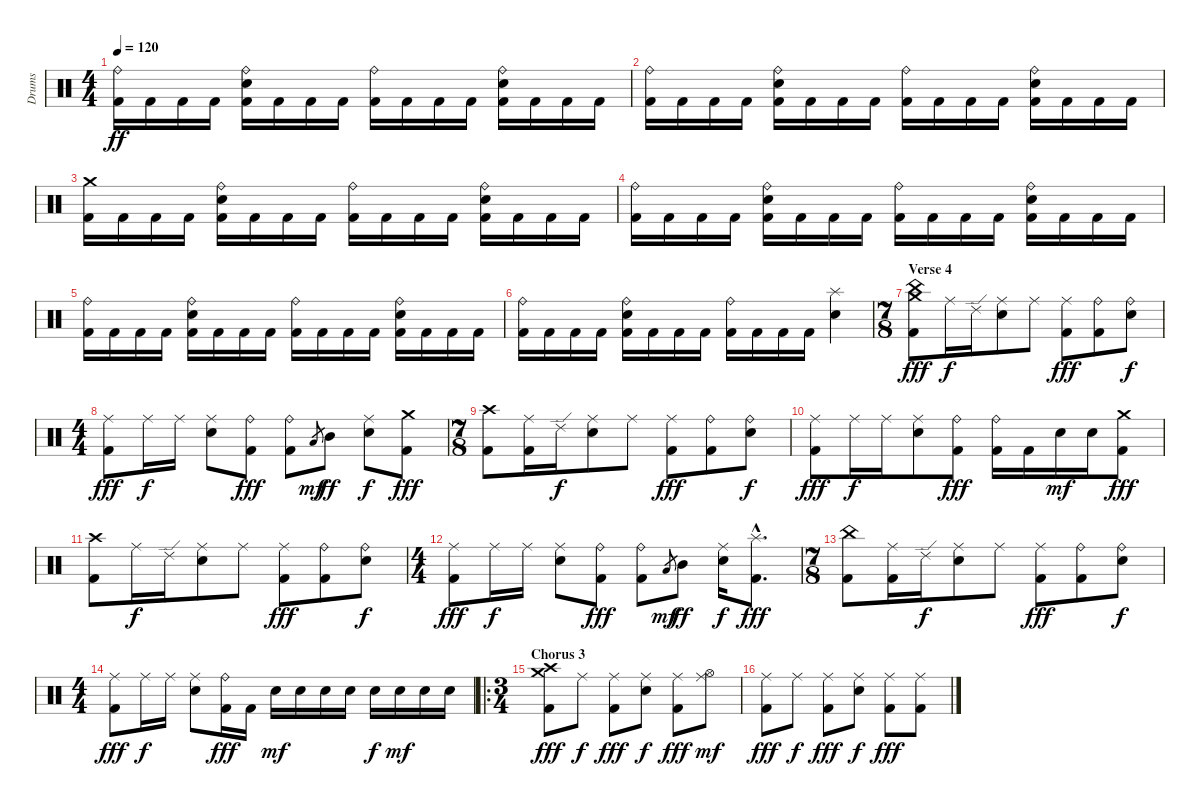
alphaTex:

\track ("Drums" "Drums") {instrument percussion}
\staff {score}
\articulation defaults
\ts (4 4)
\tempo 120
\clef neutral
\ks c
("Ride (bell)" "Kick (hit) 2").16{dy ff} "Kick (hit) 2".16 "Kick (hit) 2".16 "Kick (hit) 2".16 ("Ride (bell)" "Electric Snare (hit)" "Kick (hit) 2").16 "Kick (hit) 2".16 "Kick (hit) 2".16 "Kick (hit) 2".16 ("Ride (bell)" "Kick (hit) 2").16 "Kick (hit) 2".16 "Kick (hit) 2".16 "Kick (hit) 2".16 ("Ride (bell)" "Electric Snare (hit)" "Kick (hit) 2").16 "Kick (hit) 2".16 "Kick (hit) 2".16 "Kick (hit) 2".16 |
("Ride (bell)" "Kick (hit) 2").16 "Kick (hit) 2".16 "Kick (hit) 2".16 "Kick (hit) 2".16 ("Ride (bell)" "Electric Snare (hit)" "Kick (hit) 2").16 "Kick (hit) 2".16 "Kick (hit) 2".16 "Kick (hit) 2".16 ("Ride (bell)" "Kick (hit) 2").16 "Kick (hit) 2".16 "Kick (hit) 2".16 "Kick (hit) 2".16 ("Ride (bell)" "Electric Snare (hit)" "Kick (hit) 2").16 "Kick (hit) 2".16 "Kick (hit) 2".16 "Kick (hit) 2".16 |
("Crash medium (hit)" "Kick (hit) 2").16 "Kick (hit) 2".16 "Kick (hit) 2".16 "Kick (hit) 2".16 ("Ride (bell)" "Electric Snare (hit)" "Kick (hit) 2").16 "Kick (hit) 2".16 "Kick (hit) 2".16 "Kick (hit) 2".16 ("Ride (bell)" "Kick (hit) 2").16 "Kick (hit) 2".16 "Kick (hit) 2".16 "Kick (hit) 2".16 ("Ride (bell)" "Electric Snare (hit)" "Kick (hit) 2").16 "Kick (hit) 2".16 "Kick (hit) 2".16 "Kick (hit) 2".16 |
("Ride (bell)" "Kick (hit) 2").16 "Kick (hit) 2".16 "Kick (hit) 2".16 "Kick (hit) 2".16 ("Ride (bell)" "Electric Snare (hit)" "Kick (hit) 2").16 "Kick (hit) 2".16 "Kick (hit) 2".16 "Kick (hit) 2".16 ("Ride (bell)" "Kick (hit) 2").16 "Kick (hit) 2".16 "Kick (hit) 2".16 "Kick (hit) 2".16 ("Ride (bell)" "Electric Snare (hit)" "Kick (hit) 2").16 "Kick (hit) 2".16 "Kick (hit) 2".16 "Kick (hit) 2".16 |
("Ride (bell)" "Kick (hit) 2").16 "Kick (hit) 2".16 "Kick (hit) 2".16 "Kick (hit) 2".16 ("Ride (bell)" "Electric Snare (hit)" "Kick (hit) 2").16 "Kick (hit) 2".16 "Kick (hit) 2".16 "Kick (hit) 2".16 ("Ride (bell)" "Kick (hit) 2").16 "Kick (hit) 2".16 "Kick (hit) 2".16 "Kick (hit) 2".16 ("Ride (bell)" "Electric Snare (hit)" "Kick (hit) 2").16 "Kick (hit) 2".16 "Kick (hit) 2".16 "Kick (hit) 2".16 |
("Ride (bell)" "Kick (hit) 2").16 "Kick (hit) 2".16 "Kick (hit) 2".16 "Kick (hit) 2".16 ("Ride (bell)" "Electric Snare (hit)" "Kick (hit) 2").16 "Kick (hit) 2".16 "Kick (hit) 2".16 "Kick (hit) 2".16 ("Ride (bell)" "Kick (hit) 2").16 "Kick (hit) 2".16 "Kick (hit) 2".16 "Kick (hit) 2".16 ("Splash (hit)" "Electric Snare (hit)").4 |
\ts (7 8)
\section ("" "Verse 4")
("China (hit)" "Crash medium (hit)" "Kick (hit) 2").8{dy fff} "Ride (middle)".16{dy f} "Ride (edge) 2".16 ("Ride (middle)" "Electric Snare (hit)").8 "Ride (middle)".8 ("Ride (middle)" "Kick (hit) 2").8{dy fff} ("Ride (bell)" "Kick (hit) 2").8 ("Ride (bell)" "Electric Snare (hit)").8{dy f} |
\ts (4 4)
("Ride (middle)" "Kick (hit) 2").8{dy fff} "Ride (middle)".16{dy f} "Ride (middle)".16 ("Ride (middle)" "Electric Snare (hit)").8 ("Ride (bell)" "Kick (hit) 2").8{dy fff} ("Ride (bell)" "Kick (hit) 2").8 "Low Tom (hit)".8{gr dy mf} "Mid Tom (hit)".8{dy ff} ("Ride (middle)" "Electric Snare (hit)").8{dy f} ("Crash medium (hit)" "Kick (hit) 2").8{dy fff} |
\ts (7 8)
("Crash high (hit)" "Kick (hit) 2").8 ("Ride (middle)" "Kick (hit) 2").16 "Ride (edge) 2".16{dy f} ("Ride (middle)" "Electric Snare (hit)").8 "Ride (middle)".8 ("Ride (middle)" "Kick (hit) 2").8{dy fff} ("Ride (bell)" "Kick (hit) 2").8 ("Ride (bell)" "Electric Snare (hit)").8{dy f} |
("Ride (middle)" "Kick (hit) 2").8{dy fff} "Ride (middle)".16{dy f} "Ride (middle)".16 ("Ride (middle)" "Electric Snare (hit)").8 ("Ride (bell)" "Kick (hit) 2").8{dy fff} ("Ride (bell)" "Kick (hit) 2").16 "Kick (hit) 2".16 "Electric Snare (hit)".16{dy mf} "Electric Snare (hit)".16 ("Crash medium (hit)" "Kick (hit) 2").8{dy fff} |
("Crash high (hit)" "Kick (hit) 2").8 "Ride (middle)".16{dy f} "Ride (edge) 2".16 ("Ride (middle)" "Electric Snare (hit)").8 "Ride (middle)".8 ("Ride (middle)" "Kick (hit) 2").8{dy fff} ("Ride (bell)" "Kick (hit) 2").8 ("Ride (bell)" "Electric Snare (hit)").8{dy f} |
\ts (4 4)
("Ride (middle)" "Kick (hit) 2").8{dy fff} "Ride (middle)".16{dy f} "Ride (middle)".16 ("Ride (middle)" "Electric Snare (hit)").8 ("Ride (bell)" "Kick (hit) 2").8{dy fff} ("Ride (bell)" "Kick (hit) 2").8 "Low Tom (hit)".8{gr dy mf} "Mid Tom (hit)".8{dy ff} ("Ride (middle)" "Electric Snare (hit)").16{dy f} ("Splash (hit)"{hac} "Kick (hit) 2"{hac}).8{d dy fff} |
\ts (7 8)
("China (hit)" "Kick (hit) 2").8 ("Ride (middle)" "Kick (hit) 2").16 "Ride (edge) 2".16{dy f} ("Ride (middle)" "Electric Snare (hit)").8 "Ride (middle)".8 ("Ride (middle)" "Kick (hit) 2").8{dy fff} ("Ride (bell)" "Kick (hit) 2").8 ("Ride (bell)" "Electric Snare (hit)").8{dy f} |
\ts (4 4)
("Ride (middle)" "Kick (hit) 2").8{dy fff} "Ride (middle)".16{dy f} "Ride (middle)".16 ("Ride (middle)" "Electric Snare (hit)").8 ("Ride (bell)" "Kick (hit) 2").16{dy fff} "Kick (hit) 2".16 "Electric Snare (hit)".16{dy mf} "Electric Snare (hit)".16 "Electric Snare (hit)".16 "Electric Snare (hit)".16 "Electric Snare (hit)".16{dy f} "Electric Snare (hit)".16{dy mf} "Electric Snare (hit)".16 "Electric Snare (hit)".16 |
\ro
\ts (3 4)
\section ("" "Chorus 3")
("Crash medium (hit)" "Crash high (hit)" "Kick (hit) 2").8{dy fff} "Ride (middle)".8{dy f} ("Ride (middle)" "Kick (hit) 2").8{dy fff} ("Ride (middle)" "Electric Snare (hit)").8{dy f} ("Ride (middle)" "Kick (hit) 2").8{dy fff} ("Ride (middle)" "Hi-Hat (open)").8{dy mf} |
("Ride (middle)" "Kick (hit) 2").8{dy fff} "Ride (middle)".8{dy f} ("Ride (middle)" "Kick (hit) 2").8{dy fff} ("Ride (middle)" "Electric Snare (hit)").8{dy f} ("Ride (middle)" "Kick (hit) 2").8{dy fff} ("Ride (middle)" "Kick (hit) 2").8
